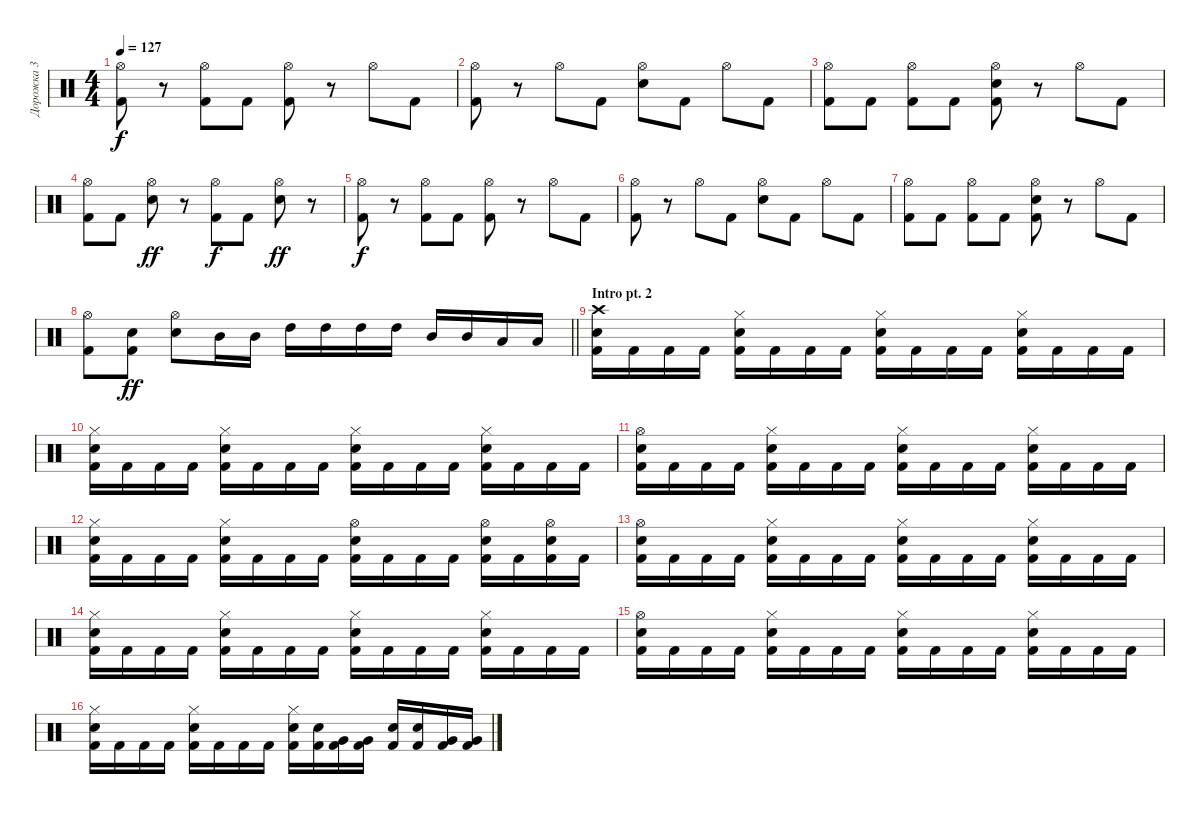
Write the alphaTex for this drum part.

\track ("Дорожка 3" "Дорожка 3") {instrument percussion}
\staff {score}
\articulation defaults
\ts (4 4)
\tempo 127
\clef neutral
\ks c
("Hi-Hat (open)" "Kick (hit) 2").8{dy f} r.8 ("Hi-Hat (open)" "Kick (hit) 2").8 "Kick (hit) 2".8 ("Hi-Hat (open)" "Kick (hit) 2").8 r.8 "Hi-Hat (open)".8 "Kick (hit) 2".8 |
("Hi-Hat (open)" "Kick (hit) 2").8 r.8 "Hi-Hat (open)".8 "Kick (hit) 2".8 ("Hi-Hat (open)" "Electric Snare (hit)").8 "Kick (hit) 2".8 "Hi-Hat (open)".8 "Kick (hit) 2".8 |
("Hi-Hat (open)" "Kick (hit) 2").8 "Kick (hit) 2".8 ("Hi-Hat (open)" "Kick (hit) 2").8 "Kick (hit) 2".8 ("Hi-Hat (open)" "Electric Snare (hit)" "Kick (hit) 2").8 r.8 "Hi-Hat (open)".8 "Kick (hit) 2".8 |
("Hi-Hat (open)" "Kick (hit) 2").8 "Kick (hit) 2".8 ("Hi-Hat (open)" "Electric Snare (hit)").8{dy ff} r.8 ("Hi-Hat (open)" "Kick (hit) 2").8{dy f} "Kick (hit) 2".8 ("Hi-Hat (open)" "Electric Snare (hit)").8{dy ff} r.8 |
("Hi-Hat (open)" "Kick (hit) 2").8{dy f} r.8 ("Hi-Hat (open)" "Kick (hit) 2").8 "Kick (hit) 2".8 ("Hi-Hat (open)" "Kick (hit) 2").8 r.8 "Hi-Hat (open)".8 "Kick (hit) 2".8 |
("Hi-Hat (open)" "Kick (hit) 2").8 r.8 "Hi-Hat (open)".8 "Kick (hit) 2".8 ("Hi-Hat (open)" "Electric Snare (hit)").8 "Kick (hit) 2".8 "Hi-Hat (open)".8 "Kick (hit) 2".8 |
("Hi-Hat (open)" "Kick (hit) 2").8 "Kick (hit) 2".8 ("Hi-Hat (open)" "Kick (hit) 2").8 "Kick (hit) 2".8 ("Hi-Hat (open)" "Electric Snare (hit)" "Kick (hit) 2").8 r.8 "Hi-Hat (open)".8 "Kick (hit) 2".8 |
\barLineRight lightlight
("Hi-Hat (open)" "Kick (hit) 2").8 ("Electric Snare (hit)" "Kick (hit) 2").8{dy ff} ("Hi-Hat (open)" "Electric Snare (hit)").8 "Mid Tom (hit)".16 "Mid Tom (hit)".16 "High Tom (hit)".16 "High Tom (hit)".16 "High Tom (hit)".16 "High Tom (hit)".16 "Mid Tom (hit)".16 "Mid Tom (hit)".16 "Low Tom (hit)".16 "Low Tom (hit)".16 |
\section ("" "Intro pt. 2")
("Crash high (hit)" "Electric Snare (hit)" "Kick (hit) 2").16 "Kick (hit) 2".16 "Kick (hit) 2".16 "Kick (hit) 2".16 ("Hi-Hat (closed)" "Electric Snare (hit)" "Kick (hit) 2").16 "Kick (hit) 2".16 "Kick (hit) 2".16 "Kick (hit) 2".16 ("Hi-Hat (closed)" "Electric Snare (hit)" "Kick (hit) 2").16 "Kick (hit) 2".16 "Kick (hit) 2".16 "Kick (hit) 2".16 ("Hi-Hat (closed)" "Electric Snare (hit)" "Kick (hit) 2").16 "Kick (hit) 2".16 "Kick (hit) 2".16 "Kick (hit) 2".16 |
("Hi-Hat (closed)" "Electric Snare (hit)" "Kick (hit) 2").16 "Kick (hit) 2".16 "Kick (hit) 2".16 "Kick (hit) 2".16 ("Hi-Hat (closed)" "Electric Snare (hit)" "Kick (hit) 2").16 "Kick (hit) 2".16 "Kick (hit) 2".16 "Kick (hit) 2".16 ("Hi-Hat (closed)" "Electric Snare (hit)" "Kick (hit) 2").16 "Kick (hit) 2".16 "Kick (hit) 2".16 "Kick (hit) 2".16 ("Hi-Hat (closed)" "Electric Snare (hit)" "Kick (hit) 2").16 "Kick (hit) 2".16 "Kick (hit) 2".16 "Kick (hit) 2".16 |
("Hi-Hat (open)" "Electric Snare (hit)" "Kick (hit) 2").16 "Kick (hit) 2".16 "Kick (hit) 2".16 "Kick (hit) 2".16 ("Hi-Hat (closed)" "Electric Snare (hit)" "Kick (hit) 2").16 "Kick (hit) 2".16 "Kick (hit) 2".16 "Kick (hit) 2".16 ("Hi-Hat (closed)" "Electric Snare (hit)" "Kick (hit) 2").16 "Kick (hit) 2".16 "Kick (hit) 2".16 "Kick (hit) 2".16 ("Hi-Hat (closed)" "Electric Snare (hit)" "Kick (hit) 2").16 "Kick (hit) 2".16 "Kick (hit) 2".16 "Kick (hit) 2".16 |
("Hi-Hat (closed)" "Electric Snare (hit)" "Kick (hit) 2").16 "Kick (hit) 2".16 "Kick (hit) 2".16 "Kick (hit) 2".16 ("Hi-Hat (closed)" "Electric Snare (hit)" "Kick (hit) 2").16 "Kick (hit) 2".16 "Kick (hit) 2".16 "Kick (hit) 2".16 ("Hi-Hat (open)" "Electric Snare (hit)" "Kick (hit) 2").16 "Kick (hit) 2".16 "Kick (hit) 2".16 "Kick (hit) 2".16 ("Hi-Hat (open)" "Electric Snare (hit)" "Kick (hit) 2").16 "Kick (hit) 2".16 ("Hi-Hat (open)" "Electric Snare (hit)" "Kick (hit) 2").16 "Kick (hit) 2".16 |
("Hi-Hat (open)" "Electric Snare (hit)" "Kick (hit) 2").16 "Kick (hit) 2".16 "Kick (hit) 2".16 "Kick (hit) 2".16 ("Hi-Hat (closed)" "Electric Snare (hit)" "Kick (hit) 2").16 "Kick (hit) 2".16 "Kick (hit) 2".16 "Kick (hit) 2".16 ("Hi-Hat (closed)" "Electric Snare (hit)" "Kick (hit) 2").16 "Kick (hit) 2".16 "Kick (hit) 2".16 "Kick (hit) 2".16 ("Hi-Hat (closed)" "Electric Snare (hit)" "Kick (hit) 2").16 "Kick (hit) 2".16 "Kick (hit) 2".16 "Kick (hit) 2".16 |
("Hi-Hat (closed)" "Electric Snare (hit)" "Kick (hit) 2").16 "Kick (hit) 2".16 "Kick (hit) 2".16 "Kick (hit) 2".16 ("Hi-Hat (closed)" "Electric Snare (hit)" "Kick (hit) 2").16 "Kick (hit) 2".16 "Kick (hit) 2".16 "Kick (hit) 2".16 ("Hi-Hat (closed)" "Electric Snare (hit)" "Kick (hit) 2").16 "Kick (hit) 2".16 "Kick (hit) 2".16 "Kick (hit) 2".16 ("Hi-Hat (closed)" "Electric Snare (hit)" "Kick (hit) 2").16 "Kick (hit) 2".16 "Kick (hit) 2".16 "Kick (hit) 2".16 |
("Hi-Hat (open)" "Electric Snare (hit)" "Kick (hit) 2").16 "Kick (hit) 2".16 "Kick (hit) 2".16 "Kick (hit) 2".16 ("Hi-Hat (closed)" "Electric Snare (hit)" "Kick (hit) 2").16 "Kick (hit) 2".16 "Kick (hit) 2".16 "Kick (hit) 2".16 ("Hi-Hat (closed)" "Electric Snare (hit)" "Kick (hit) 2").16 "Kick (hit) 2".16 "Kick (hit) 2".16 "Kick (hit) 2".16 ("Hi-Hat (closed)" "Electric Snare (hit)" "Kick (hit) 2").16 "Kick (hit) 2".16 "Kick (hit) 2".16 "Kick (hit) 2".16 |
("Hi-Hat (closed)" "Electric Snare (hit)" "Kick (hit) 2").16 "Kick (hit) 2".16 "Kick (hit) 2".16 "Kick (hit) 2".16 ("Hi-Hat (closed)" "Electric Snare (hit)" "Kick (hit) 2").16 "Kick (hit) 2".16 "Kick (hit) 2".16 "Kick (hit) 2".16 ("Hi-Hat (closed)" "Electric Snare (hit)" "Kick (hit) 2").16 ("Electric Snare (hit)" "Kick (hit) 2").16 ("Very Low Tom (hit)" "Kick (hit) 2").16 ("Very Low Tom (hit)" "Kick (hit) 2").16 ("Electric Snare (hit)" "Kick (hit) 2").16 ("Electric Snare (hit)" "Kick (hit) 2").16 ("Very Low Tom (hit)" "Kick (hit) 2").16 ("Very Low Tom (hit)" "Kick (hit) 2").16
